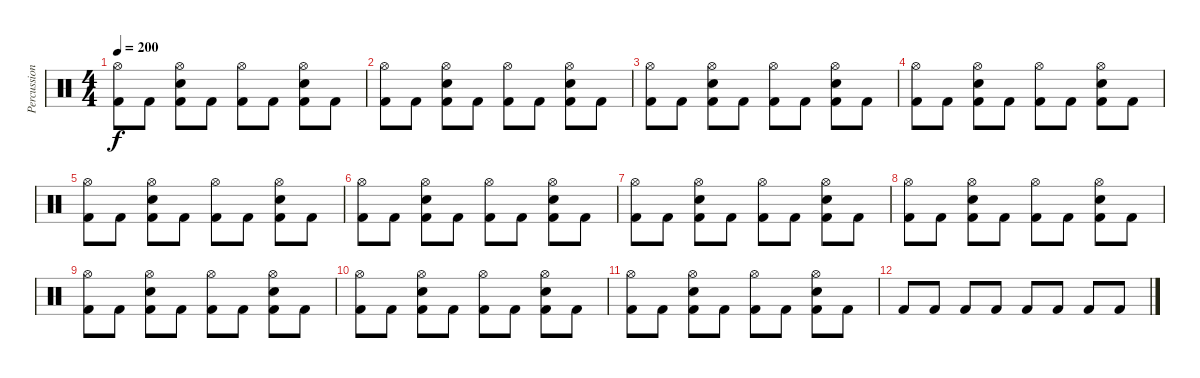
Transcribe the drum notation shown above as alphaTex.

\track ("Percussion" "Percussion") {instrument percussion}
\staff {score}
\articulation defaults
\ts (4 4)
\tempo 200
\clef neutral
\ks c
("Hi-Hat (open)" "Kick (hit) 2").8{dy f} "Kick (hit) 2".8 ("Hi-Hat (open)" "Electric Snare (hit)" "Kick (hit) 2").8 "Kick (hit) 2".8 ("Hi-Hat (open)" "Kick (hit) 2").8 "Kick (hit) 2".8 ("Hi-Hat (open)" "Electric Snare (hit)" "Kick (hit) 2").8 "Kick (hit) 2".8 |
("Hi-Hat (open)" "Kick (hit) 2").8 "Kick (hit) 2".8 ("Hi-Hat (open)" "Electric Snare (hit)" "Kick (hit) 2").8 "Kick (hit) 2".8 ("Hi-Hat (open)" "Kick (hit) 2").8 "Kick (hit) 2".8 ("Hi-Hat (open)" "Electric Snare (hit)" "Kick (hit) 2").8 "Kick (hit) 2".8 |
("Hi-Hat (open)" "Kick (hit) 2").8 "Kick (hit) 2".8 ("Hi-Hat (open)" "Electric Snare (hit)" "Kick (hit) 2").8 "Kick (hit) 2".8 ("Hi-Hat (open)" "Kick (hit) 2").8 "Kick (hit) 2".8 ("Hi-Hat (open)" "Electric Snare (hit)" "Kick (hit) 2").8 "Kick (hit) 2".8 |
("Hi-Hat (open)" "Kick (hit) 2").8 "Kick (hit) 2".8 ("Hi-Hat (open)" "Electric Snare (hit)" "Kick (hit) 2").8 "Kick (hit) 2".8 ("Hi-Hat (open)" "Kick (hit) 2").8 "Kick (hit) 2".8 ("Hi-Hat (open)" "Electric Snare (hit)" "Kick (hit) 2").8 "Kick (hit) 2".8 |
("Hi-Hat (open)" "Kick (hit) 2").8 "Kick (hit) 2".8 ("Hi-Hat (open)" "Electric Snare (hit)" "Kick (hit) 2").8 "Kick (hit) 2".8 ("Hi-Hat (open)" "Kick (hit) 2").8 "Kick (hit) 2".8 ("Hi-Hat (open)" "Electric Snare (hit)" "Kick (hit) 2").8 "Kick (hit) 2".8 |
("Hi-Hat (open)" "Kick (hit) 2").8 "Kick (hit) 2".8 ("Hi-Hat (open)" "Electric Snare (hit)" "Kick (hit) 2").8 "Kick (hit) 2".8 ("Hi-Hat (open)" "Kick (hit) 2").8 "Kick (hit) 2".8 ("Hi-Hat (open)" "Electric Snare (hit)" "Kick (hit) 2").8 "Kick (hit) 2".8 |
("Hi-Hat (open)" "Kick (hit) 2").8 "Kick (hit) 2".8 ("Hi-Hat (open)" "Electric Snare (hit)" "Kick (hit) 2").8 "Kick (hit) 2".8 ("Hi-Hat (open)" "Kick (hit) 2").8 "Kick (hit) 2".8 ("Hi-Hat (open)" "Electric Snare (hit)" "Kick (hit) 2").8 "Kick (hit) 2".8 |
("Hi-Hat (open)" "Kick (hit) 2").8 "Kick (hit) 2".8 ("Hi-Hat (open)" "Electric Snare (hit)" "Kick (hit) 2").8 "Kick (hit) 2".8 ("Hi-Hat (open)" "Kick (hit) 2").8 "Kick (hit) 2".8 ("Hi-Hat (open)" "Electric Snare (hit)" "Kick (hit) 2").8 "Kick (hit) 2".8 |
("Hi-Hat (open)" "Kick (hit) 2").8 "Kick (hit) 2".8 ("Hi-Hat (open)" "Electric Snare (hit)" "Kick (hit) 2").8 "Kick (hit) 2".8 ("Hi-Hat (open)" "Kick (hit) 2").8 "Kick (hit) 2".8 ("Hi-Hat (open)" "Electric Snare (hit)" "Kick (hit) 2").8 "Kick (hit) 2".8 |
("Hi-Hat (open)" "Kick (hit) 2").8 "Kick (hit) 2".8 ("Hi-Hat (open)" "Electric Snare (hit)" "Kick (hit) 2").8 "Kick (hit) 2".8 ("Hi-Hat (open)" "Kick (hit) 2").8 "Kick (hit) 2".8 ("Hi-Hat (open)" "Electric Snare (hit)" "Kick (hit) 2").8 "Kick (hit) 2".8 |
("Hi-Hat (open)" "Kick (hit) 2").8 "Kick (hit) 2".8 ("Hi-Hat (open)" "Electric Snare (hit)" "Kick (hit) 2").8 "Kick (hit) 2".8 ("Hi-Hat (open)" "Kick (hit) 2").8 "Kick (hit) 2".8 ("Hi-Hat (open)" "Electric Snare (hit)" "Kick (hit) 2").8 "Kick (hit) 2".8 |
"Kick (hit) 2".8 "Kick (hit) 2".8 "Kick (hit) 2".8 "Kick (hit) 2".8 "Kick (hit) 2".8 "Kick (hit) 2".8 "Kick (hit) 2".8 "Kick (hit) 2".8
